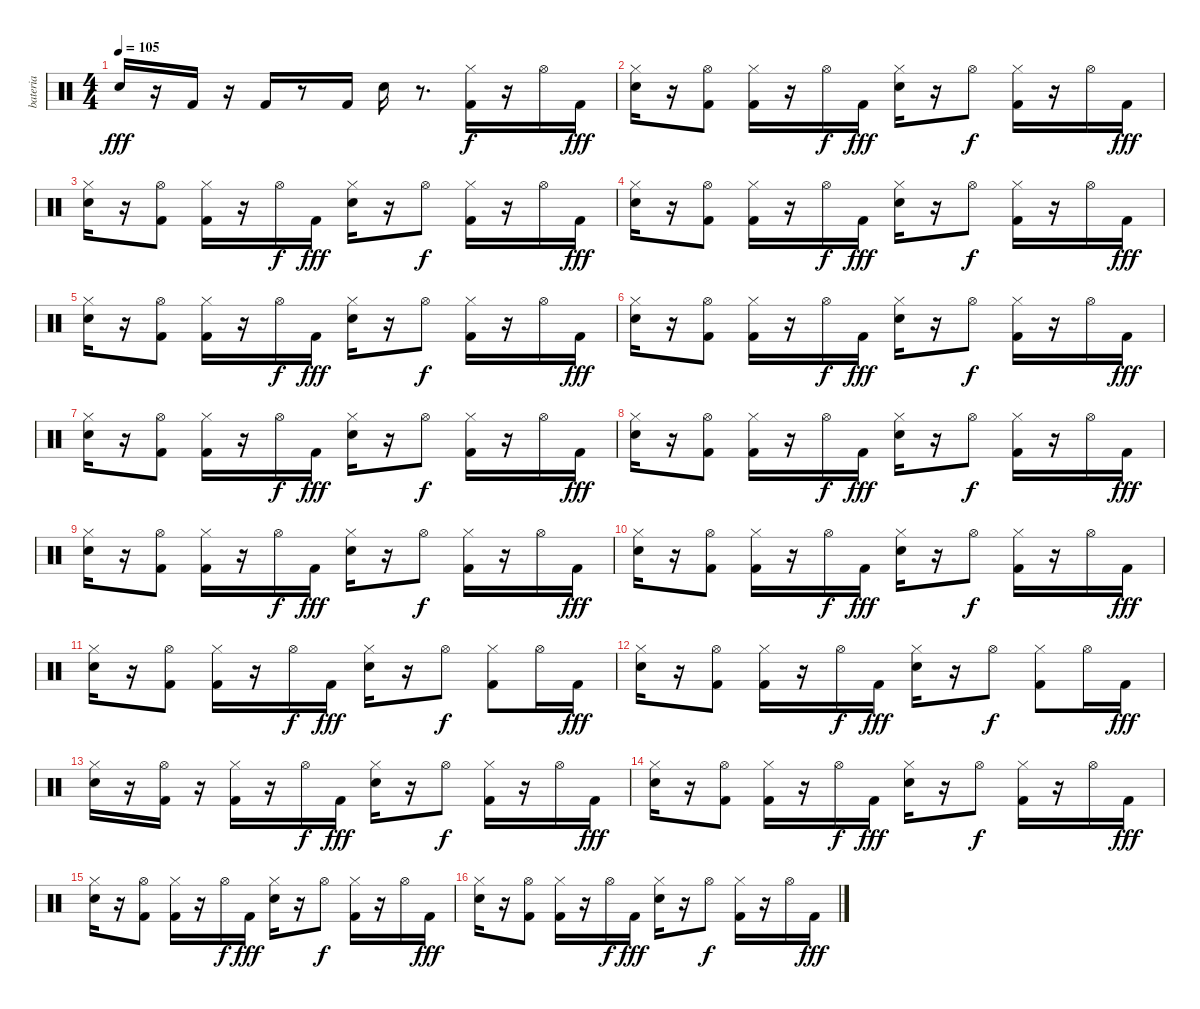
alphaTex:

\track ("bateria" "bateria") {instrument percussion}
\staff {score}
\articulation defaults
\ts (4 4)
\tempo 105
\clef neutral
\ks c "Snare (hit) 2".16{dy fff}
r.16 "Kick (hit) 2".16 r.16 "Kick (hit) 2".16 r.8 "Kick (hit) 2".16 "Snare (hit) 2".16 r.8{d} ("Hi-Hat (closed)" "Kick (hit) 2").16{dy f} r.16 "Hi-Hat (open)".16 "Kick (hit) 2".16{dy fff} |
("Snare (hit) 2" "Hi-Hat (closed)").16 r.16 ("Kick (hit) 2" "Hi-Hat (open)").8 ("Kick (hit) 2" "Hi-Hat (closed)").16 r.16 "Hi-Hat (open)".16{dy f} "Kick (hit) 2".16{dy fff} ("Snare (hit) 2" "Hi-Hat (closed)").16 r.16 "Hi-Hat (open)".8{dy f} ("Hi-Hat (closed)" "Kick (hit) 2").16 r.16 "Hi-Hat (open)".16 "Kick (hit) 2".16{dy fff} |
("Snare (hit) 2" "Hi-Hat (closed)").16 r.16 ("Kick (hit) 2" "Hi-Hat (open)").8 ("Kick (hit) 2" "Hi-Hat (closed)").16 r.16 "Hi-Hat (open)".16{dy f} "Kick (hit) 2".16{dy fff} ("Snare (hit) 2" "Hi-Hat (closed)").16 r.16 "Hi-Hat (open)".8{dy f} ("Hi-Hat (closed)" "Kick (hit) 2").16 r.16 "Hi-Hat (open)".16 "Kick (hit) 2".16{dy fff} |
("Snare (hit) 2" "Hi-Hat (closed)").16 r.16 ("Kick (hit) 2" "Hi-Hat (open)").8 ("Kick (hit) 2" "Hi-Hat (closed)").16 r.16 "Hi-Hat (open)".16{dy f} "Kick (hit) 2".16{dy fff} ("Snare (hit) 2" "Hi-Hat (closed)").16 r.16 "Hi-Hat (open)".8{dy f} ("Hi-Hat (closed)" "Kick (hit) 2").16 r.16 "Hi-Hat (open)".16 "Kick (hit) 2".16{dy fff} |
("Snare (hit) 2" "Hi-Hat (closed)").16 r.16 ("Kick (hit) 2" "Hi-Hat (open)").8 ("Kick (hit) 2" "Hi-Hat (closed)").16 r.16 "Hi-Hat (open)".16{dy f} "Kick (hit) 2".16{dy fff} ("Snare (hit) 2" "Hi-Hat (closed)").16 r.16 "Hi-Hat (open)".8{dy f} ("Hi-Hat (closed)" "Kick (hit) 2").16 r.16 "Hi-Hat (open)".16 "Kick (hit) 2".16{dy fff} |
("Snare (hit) 2" "Hi-Hat (closed)").16 r.16 ("Kick (hit) 2" "Hi-Hat (open)").8 ("Kick (hit) 2" "Hi-Hat (closed)").16 r.16 "Hi-Hat (open)".16{dy f} "Kick (hit) 2".16{dy fff} ("Snare (hit) 2" "Hi-Hat (closed)").16 r.16 "Hi-Hat (open)".8{dy f} ("Hi-Hat (closed)" "Kick (hit) 2").16 r.16 "Hi-Hat (open)".16 "Kick (hit) 2".16{dy fff} |
("Snare (hit) 2" "Hi-Hat (closed)").16 r.16 ("Kick (hit) 2" "Hi-Hat (open)").8 ("Kick (hit) 2" "Hi-Hat (closed)").16 r.16 "Hi-Hat (open)".16{dy f} "Kick (hit) 2".16{dy fff} ("Snare (hit) 2" "Hi-Hat (closed)").16 r.16 "Hi-Hat (open)".8{dy f} ("Hi-Hat (closed)" "Kick (hit) 2").16 r.16 "Hi-Hat (open)".16 "Kick (hit) 2".16{dy fff} |
("Snare (hit) 2" "Hi-Hat (closed)").16 r.16 ("Kick (hit) 2" "Hi-Hat (open)").8 ("Kick (hit) 2" "Hi-Hat (closed)").16 r.16 "Hi-Hat (open)".16{dy f} "Kick (hit) 2".16{dy fff} ("Snare (hit) 2" "Hi-Hat (closed)").16 r.16 "Hi-Hat (open)".8{dy f} ("Hi-Hat (closed)" "Kick (hit) 2").16 r.16 "Hi-Hat (open)".16 "Kick (hit) 2".16{dy fff} |
("Snare (hit) 2" "Hi-Hat (closed)").16 r.16 ("Kick (hit) 2" "Hi-Hat (open)").8 ("Kick (hit) 2" "Hi-Hat (closed)").16 r.16 "Hi-Hat (open)".16{dy f} "Kick (hit) 2".16{dy fff} ("Snare (hit) 2" "Hi-Hat (closed)").16 r.16 "Hi-Hat (open)".8{dy f} ("Hi-Hat (closed)" "Kick (hit) 2").16 r.16 "Hi-Hat (open)".16 "Kick (hit) 2".16{dy fff} |
("Snare (hit) 2" "Hi-Hat (closed)").16 r.16 ("Kick (hit) 2" "Hi-Hat (open)").8 ("Kick (hit) 2" "Hi-Hat (closed)").16 r.16 "Hi-Hat (open)".16{dy f} "Kick (hit) 2".16{dy fff} ("Snare (hit) 2" "Hi-Hat (closed)").16 r.16 "Hi-Hat (open)".8{dy f} ("Hi-Hat (closed)" "Kick (hit) 2").16 r.16 "Hi-Hat (open)".16 "Kick (hit) 2".16{dy fff} |
("Snare (hit) 2" "Hi-Hat (closed)").16 r.16 ("Kick (hit) 2" "Hi-Hat (open)").8 ("Kick (hit) 2" "Hi-Hat (closed)").16 r.16 "Hi-Hat (open)".16{dy f} "Kick (hit) 2".16{dy fff} ("Snare (hit) 2" "Hi-Hat (closed)").16 r.16 "Hi-Hat (open)".8{dy f} ("Hi-Hat (closed)" "Kick (hit) 2").8 "Hi-Hat (open)".16 "Kick (hit) 2".16{dy fff} |
("Snare (hit) 2" "Hi-Hat (closed)").16 r.16 ("Kick (hit) 2" "Hi-Hat (open)").8 ("Kick (hit) 2" "Hi-Hat (closed)").16 r.16 "Hi-Hat (open)".16{dy f} "Kick (hit) 2".16{dy fff} ("Snare (hit) 2" "Hi-Hat (closed)").16 r.16 "Hi-Hat (open)".8{dy f} ("Hi-Hat (closed)" "Kick (hit) 2").8 "Hi-Hat (open)".16 "Kick (hit) 2".16{dy fff} |
("Snare (hit) 2" "Hi-Hat (closed)").16 r.16 ("Kick (hit) 2" "Hi-Hat (open)").16 r.16 ("Kick (hit) 2" "Hi-Hat (closed)").16 r.16 "Hi-Hat (open)".16{dy f} "Kick (hit) 2".16{dy fff} ("Snare (hit) 2" "Hi-Hat (closed)").16 r.16 "Hi-Hat (open)".8{dy f} ("Hi-Hat (closed)" "Kick (hit) 2").16 r.16 "Hi-Hat (open)".16 "Kick (hit) 2".16{dy fff} |
("Snare (hit) 2" "Hi-Hat (closed)").16 r.16 ("Kick (hit) 2" "Hi-Hat (open)").8 ("Kick (hit) 2" "Hi-Hat (closed)").16 r.16 "Hi-Hat (open)".16{dy f} "Kick (hit) 2".16{dy fff} ("Snare (hit) 2" "Hi-Hat (closed)").16 r.16 "Hi-Hat (open)".8{dy f} ("Hi-Hat (closed)" "Kick (hit) 2").16 r.16 "Hi-Hat (open)".16 "Kick (hit) 2".16{dy fff} |
("Snare (hit) 2" "Hi-Hat (closed)").16 r.16 ("Kick (hit) 2" "Hi-Hat (open)").8 ("Kick (hit) 2" "Hi-Hat (closed)").16 r.16 "Hi-Hat (open)".16{dy f} "Kick (hit) 2".16{dy fff} ("Snare (hit) 2" "Hi-Hat (closed)").16 r.16 "Hi-Hat (open)".8{dy f} ("Hi-Hat (closed)" "Kick (hit) 2").16 r.16 "Hi-Hat (open)".16 "Kick (hit) 2".16{dy fff} |
("Snare (hit) 2" "Hi-Hat (closed)").16 r.16 ("Kick (hit) 2" "Hi-Hat (open)").8 ("Kick (hit) 2" "Hi-Hat (closed)").16 r.16 "Hi-Hat (open)".16{dy f} "Kick (hit) 2".16{dy fff} ("Snare (hit) 2" "Hi-Hat (closed)").16 r.16 "Hi-Hat (open)".8{dy f} ("Hi-Hat (closed)" "Kick (hit) 2").16 r.16 "Hi-Hat (open)".16 "Kick (hit) 2".16{dy fff}
